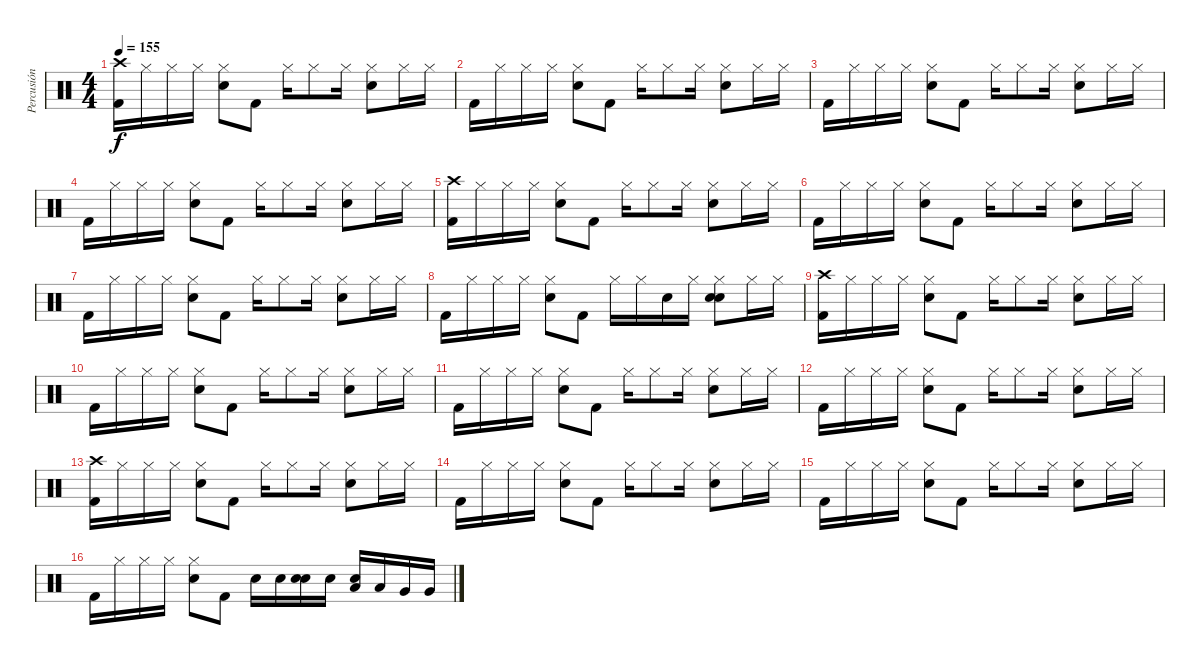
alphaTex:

\track ("Percusión" "Percusión") {instrument percussion}
\staff {score}
\articulation defaults
\ts (4 4)
\tempo 155
\clef neutral
\ks c
("Crash high (hit)" "Kick (hit) 2").16{dy f} "Hi-Hat (closed)".16 "Hi-Hat (closed)".16 "Hi-Hat (closed)".16 ("Hi-Hat (closed)" "Snare (hit) 2").8 "Kick (hit) 2".8 "Hi-Hat (closed)".16 "Hi-Hat (closed)".8 "Hi-Hat (closed)".16 ("Hi-Hat (closed)" "Snare (hit) 2").8 "Hi-Hat (closed)".16 "Hi-Hat (closed)".16 |
"Kick (hit) 2".16 "Hi-Hat (closed)".16 "Hi-Hat (closed)".16 "Hi-Hat (closed)".16 ("Hi-Hat (closed)" "Snare (hit) 2").8 "Kick (hit) 2".8 "Hi-Hat (closed)".16 "Hi-Hat (closed)".8 "Hi-Hat (closed)".16 ("Hi-Hat (closed)" "Snare (hit) 2").8 "Hi-Hat (closed)".16 "Hi-Hat (closed)".16 |
"Kick (hit) 2".16 "Hi-Hat (closed)".16 "Hi-Hat (closed)".16 "Hi-Hat (closed)".16 ("Hi-Hat (closed)" "Snare (hit) 2").8 "Kick (hit) 2".8 "Hi-Hat (closed)".16 "Hi-Hat (closed)".8 "Hi-Hat (closed)".16 ("Hi-Hat (closed)" "Snare (hit) 2").8 "Hi-Hat (closed)".16 "Hi-Hat (closed)".16 |
"Kick (hit) 2".16 "Hi-Hat (closed)".16 "Hi-Hat (closed)".16 "Hi-Hat (closed)".16 ("Hi-Hat (closed)" "Snare (hit) 2").8 "Kick (hit) 2".8 "Hi-Hat (closed)".16 "Hi-Hat (closed)".8 "Hi-Hat (closed)".16 ("Hi-Hat (closed)" "Snare (hit) 2").8 "Hi-Hat (closed)".16 "Hi-Hat (closed)".16 |
("Crash high (hit)" "Kick (hit) 2").16 "Hi-Hat (closed)".16 "Hi-Hat (closed)".16 "Hi-Hat (closed)".16 ("Hi-Hat (closed)" "Snare (hit) 2").8 "Kick (hit) 2".8 "Hi-Hat (closed)".16 "Hi-Hat (closed)".8 "Hi-Hat (closed)".16 ("Hi-Hat (closed)" "Snare (hit) 2").8 "Hi-Hat (closed)".16 "Hi-Hat (closed)".16 |
"Kick (hit) 2".16 "Hi-Hat (closed)".16 "Hi-Hat (closed)".16 "Hi-Hat (closed)".16 ("Hi-Hat (closed)" "Snare (hit) 2").8 "Kick (hit) 2".8 "Hi-Hat (closed)".16 "Hi-Hat (closed)".8 "Hi-Hat (closed)".16 ("Hi-Hat (closed)" "Snare (hit) 2").8 "Hi-Hat (closed)".16 "Hi-Hat (closed)".16 |
"Kick (hit) 2".16 "Hi-Hat (closed)".16 "Hi-Hat (closed)".16 "Hi-Hat (closed)".16 ("Hi-Hat (closed)" "Snare (hit) 2").8 "Kick (hit) 2".8 "Hi-Hat (closed)".16 "Hi-Hat (closed)".8 "Hi-Hat (closed)".16 ("Hi-Hat (closed)" "Snare (hit) 2").8 "Hi-Hat (closed)".16 "Hi-Hat (closed)".16 |
"Kick (hit) 2".16 "Hi-Hat (closed)".16 "Hi-Hat (closed)".16 "Hi-Hat (closed)".16 ("Hi-Hat (closed)" "Snare (hit) 2").8 "Kick (hit) 2".8 "Hi-Hat (closed)".16 "Hi-Hat (closed)".16 "Hand Clap (hit)".16 "Hi-Hat (closed)".16 ("Hi-Hat (closed)" "Snare (hit) 2" "Hand Clap (hit)").8 "Hi-Hat (closed)".16 "Hi-Hat (closed)".16 |
("Crash high (hit)" "Kick (hit) 2").16 "Hi-Hat (closed)".16 "Hi-Hat (closed)".16 "Hi-Hat (closed)".16 ("Hi-Hat (closed)" "Snare (hit) 2").8 "Kick (hit) 2".8 "Hi-Hat (closed)".16 "Hi-Hat (closed)".8 "Hi-Hat (closed)".16 ("Hi-Hat (closed)" "Snare (hit) 2").8 "Hi-Hat (closed)".16 "Hi-Hat (closed)".16 |
"Kick (hit) 2".16 "Hi-Hat (closed)".16 "Hi-Hat (closed)".16 "Hi-Hat (closed)".16 ("Hi-Hat (closed)" "Snare (hit) 2").8 "Kick (hit) 2".8 "Hi-Hat (closed)".16 "Hi-Hat (closed)".8 "Hi-Hat (closed)".16 ("Hi-Hat (closed)" "Snare (hit) 2").8 "Hi-Hat (closed)".16 "Hi-Hat (closed)".16 |
"Kick (hit) 2".16 "Hi-Hat (closed)".16 "Hi-Hat (closed)".16 "Hi-Hat (closed)".16 ("Hi-Hat (closed)" "Snare (hit) 2").8 "Kick (hit) 2".8 "Hi-Hat (closed)".16 "Hi-Hat (closed)".8 "Hi-Hat (closed)".16 ("Hi-Hat (closed)" "Snare (hit) 2").8 "Hi-Hat (closed)".16 "Hi-Hat (closed)".16 |
"Kick (hit) 2".16 "Hi-Hat (closed)".16 "Hi-Hat (closed)".16 "Hi-Hat (closed)".16 ("Hi-Hat (closed)" "Snare (hit) 2").8 "Kick (hit) 2".8 "Hi-Hat (closed)".16 "Hi-Hat (closed)".8 "Hi-Hat (closed)".16 ("Hi-Hat (closed)" "Snare (hit) 2").8 "Hi-Hat (closed)".16 "Hi-Hat (closed)".16 |
("Crash high (hit)" "Kick (hit) 2").16 "Hi-Hat (closed)".16 "Hi-Hat (closed)".16 "Hi-Hat (closed)".16 ("Hi-Hat (closed)" "Snare (hit) 2").8 "Kick (hit) 2".8 "Hi-Hat (closed)".16 "Hi-Hat (closed)".8 "Hi-Hat (closed)".16 ("Hi-Hat (closed)" "Snare (hit) 2").8 "Hi-Hat (closed)".16 "Hi-Hat (closed)".16 |
"Kick (hit) 2".16 "Hi-Hat (closed)".16 "Hi-Hat (closed)".16 "Hi-Hat (closed)".16 ("Hi-Hat (closed)" "Snare (hit) 2").8 "Kick (hit) 2".8 "Hi-Hat (closed)".16 "Hi-Hat (closed)".8 "Hi-Hat (closed)".16 ("Hi-Hat (closed)" "Snare (hit) 2").8 "Hi-Hat (closed)".16 "Hi-Hat (closed)".16 |
"Kick (hit) 2".16 "Hi-Hat (closed)".16 "Hi-Hat (closed)".16 "Hi-Hat (closed)".16 ("Hi-Hat (closed)" "Snare (hit) 2").8 "Kick (hit) 2".8 "Hi-Hat (closed)".16 "Hi-Hat (closed)".8 "Hi-Hat (closed)".16 ("Hi-Hat (closed)" "Snare (hit) 2").8 "Hi-Hat (closed)".16 "Hi-Hat (closed)".16 |
"Kick (hit) 2".16 "Hi-Hat (closed)".16 "Hi-Hat (closed)".16 "Hi-Hat (closed)".16 ("Hi-Hat (closed)" "Snare (hit) 2").8 "Kick (hit) 2".8 "Snare (hit) 2".16 "Snare (hit) 2".16 ("Snare (hit) 2" "Hand Clap (hit)").16 "Snare (hit) 2".16 ("Low Tom (hit)" "Hand Clap (hit)").16 "Low Tom (hit)".16 "Very Low Tom (hit)".16 "Very Low Tom (hit)".16
